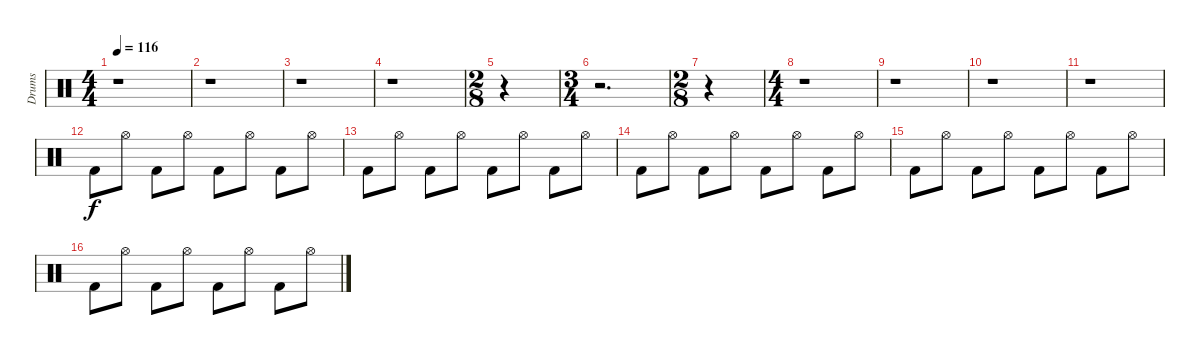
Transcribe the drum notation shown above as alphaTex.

\track ("Drums" "Drums") {instrument percussion}
\staff {score}
\articulation defaults
\ts (4 4)
\tempo 116
\clef neutral
\ks c
r.1{dy f} |
r.1 |
r.1 |
r.1 |
\ts (2 8)
r.4 |
\ts (3 4)
r.2{d} |
\ts (2 8)
r.4 |
\ts (4 4)
r.1 |
r.1 |
r.1 |
r.1 |
"Kick (hit) 2".8 "Hi-Hat (open)".8 "Kick (hit) 2".8 "Hi-Hat (open)".8 "Kick (hit) 2".8 "Hi-Hat (open)".8 "Kick (hit) 2".8 "Hi-Hat (open)".8 |
"Kick (hit) 2".8 "Hi-Hat (open)".8 "Kick (hit) 2".8 "Hi-Hat (open)".8 "Kick (hit) 2".8 "Hi-Hat (open)".8 "Kick (hit) 2".8 "Hi-Hat (open)".8 |
"Kick (hit) 2".8 "Hi-Hat (open)".8 "Kick (hit) 2".8 "Hi-Hat (open)".8 "Kick (hit) 2".8 "Hi-Hat (open)".8 "Kick (hit) 2".8 "Hi-Hat (open)".8 |
"Kick (hit) 2".8 "Hi-Hat (open)".8 "Kick (hit) 2".8 "Hi-Hat (open)".8 "Kick (hit) 2".8 "Hi-Hat (open)".8 "Kick (hit) 2".8 "Hi-Hat (open)".8 |
"Kick (hit) 2".8 "Hi-Hat (open)".8 "Kick (hit) 2".8 "Hi-Hat (open)".8 "Kick (hit) 2".8 "Hi-Hat (open)".8 "Kick (hit) 2".8 "Hi-Hat (open)".8
